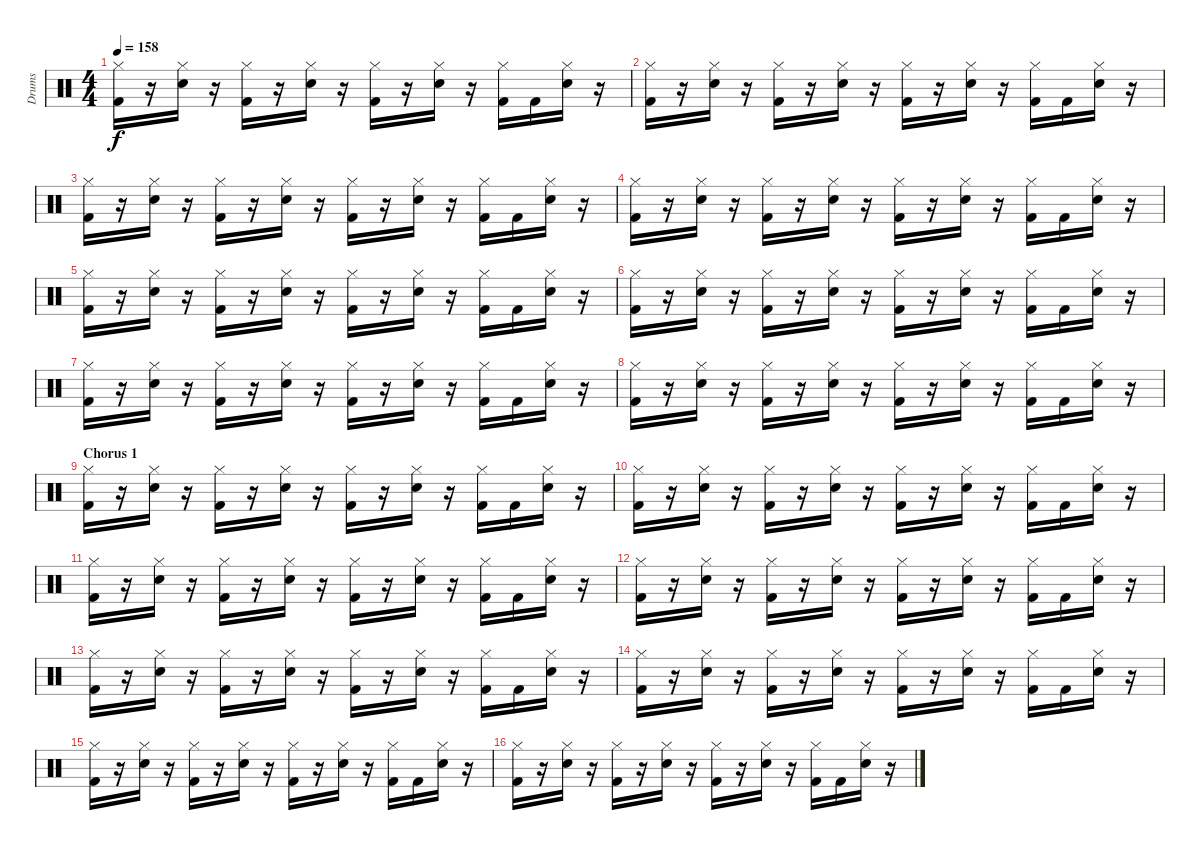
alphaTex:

\track ("Drums" "Drums") {instrument percussion}
\staff {score}
\articulation defaults
\ts (4 4)
\tempo 158
\clef neutral
\ks c
("Hi-Hat (closed)" "Kick (hit) 2").16{dy f} r.16 ("Hi-Hat (closed)" "Electric Snare (hit)").16 r.16 ("Hi-Hat (closed)" "Kick (hit) 2").16 r.16 ("Hi-Hat (closed)" "Electric Snare (hit)").16 r.16 ("Hi-Hat (closed)" "Kick (hit) 2").16 r.16 ("Hi-Hat (closed)" "Electric Snare (hit)").16 r.16 ("Hi-Hat (closed)" "Kick (hit) 2").16 "Kick (hit) 2".16 ("Hi-Hat (closed)" "Electric Snare (hit)").16 r.16 |
("Hi-Hat (closed)" "Kick (hit) 2").16 r.16 ("Hi-Hat (closed)" "Electric Snare (hit)").16 r.16 ("Hi-Hat (closed)" "Kick (hit) 2").16 r.16 ("Hi-Hat (closed)" "Electric Snare (hit)").16 r.16 ("Hi-Hat (closed)" "Kick (hit) 2").16 r.16 ("Hi-Hat (closed)" "Electric Snare (hit)").16 r.16 ("Hi-Hat (closed)" "Kick (hit) 2").16 "Kick (hit) 2".16 ("Hi-Hat (closed)" "Electric Snare (hit)").16 r.16 |
("Hi-Hat (closed)" "Kick (hit) 2").16 r.16 ("Hi-Hat (closed)" "Electric Snare (hit)").16 r.16 ("Hi-Hat (closed)" "Kick (hit) 2").16 r.16 ("Hi-Hat (closed)" "Electric Snare (hit)").16 r.16 ("Hi-Hat (closed)" "Kick (hit) 2").16 r.16 ("Hi-Hat (closed)" "Electric Snare (hit)").16 r.16 ("Hi-Hat (closed)" "Kick (hit) 2").16 "Kick (hit) 2".16 ("Hi-Hat (closed)" "Electric Snare (hit)").16 r.16 |
("Hi-Hat (closed)" "Kick (hit) 2").16 r.16 ("Hi-Hat (closed)" "Electric Snare (hit)").16 r.16 ("Hi-Hat (closed)" "Kick (hit) 2").16 r.16 ("Hi-Hat (closed)" "Electric Snare (hit)").16 r.16 ("Hi-Hat (closed)" "Kick (hit) 2").16 r.16 ("Hi-Hat (closed)" "Electric Snare (hit)").16 r.16 ("Hi-Hat (closed)" "Kick (hit) 2").16 "Kick (hit) 2".16 ("Hi-Hat (closed)" "Electric Snare (hit)").16 r.16 |
("Hi-Hat (closed)" "Kick (hit) 2").16 r.16 ("Hi-Hat (closed)" "Electric Snare (hit)").16 r.16 ("Hi-Hat (closed)" "Kick (hit) 2").16 r.16 ("Hi-Hat (closed)" "Electric Snare (hit)").16 r.16 ("Hi-Hat (closed)" "Kick (hit) 2").16 r.16 ("Hi-Hat (closed)" "Electric Snare (hit)").16 r.16 ("Hi-Hat (closed)" "Kick (hit) 2").16 "Kick (hit) 2".16 ("Hi-Hat (closed)" "Electric Snare (hit)").16 r.16 |
("Hi-Hat (closed)" "Kick (hit) 2").16 r.16 ("Hi-Hat (closed)" "Electric Snare (hit)").16 r.16 ("Hi-Hat (closed)" "Kick (hit) 2").16 r.16 ("Hi-Hat (closed)" "Electric Snare (hit)").16 r.16 ("Hi-Hat (closed)" "Kick (hit) 2").16 r.16 ("Hi-Hat (closed)" "Electric Snare (hit)").16 r.16 ("Hi-Hat (closed)" "Kick (hit) 2").16 "Kick (hit) 2".16 ("Hi-Hat (closed)" "Electric Snare (hit)").16 r.16 |
("Hi-Hat (closed)" "Kick (hit) 2").16 r.16 ("Hi-Hat (closed)" "Electric Snare (hit)").16 r.16 ("Hi-Hat (closed)" "Kick (hit) 2").16 r.16 ("Hi-Hat (closed)" "Electric Snare (hit)").16 r.16 ("Hi-Hat (closed)" "Kick (hit) 2").16 r.16 ("Hi-Hat (closed)" "Electric Snare (hit)").16 r.16 ("Hi-Hat (closed)" "Kick (hit) 2").16 "Kick (hit) 2".16 ("Hi-Hat (closed)" "Electric Snare (hit)").16 r.16 |
("Hi-Hat (closed)" "Kick (hit) 2").16 r.16 ("Hi-Hat (closed)" "Electric Snare (hit)").16 r.16 ("Hi-Hat (closed)" "Kick (hit) 2").16 r.16 ("Hi-Hat (closed)" "Electric Snare (hit)").16 r.16 ("Hi-Hat (closed)" "Kick (hit) 2").16 r.16 ("Hi-Hat (closed)" "Electric Snare (hit)").16 r.16 ("Hi-Hat (closed)" "Kick (hit) 2").16 "Kick (hit) 2".16 ("Hi-Hat (closed)" "Electric Snare (hit)").16 r.16 |
\section ("" "Chorus 1")
("Hi-Hat (closed)" "Kick (hit) 2").16 r.16 ("Hi-Hat (closed)" "Electric Snare (hit)").16 r.16 ("Hi-Hat (closed)" "Kick (hit) 2").16 r.16 ("Hi-Hat (closed)" "Electric Snare (hit)").16 r.16 ("Hi-Hat (closed)" "Kick (hit) 2").16 r.16 ("Hi-Hat (closed)" "Electric Snare (hit)").16 r.16 ("Hi-Hat (closed)" "Kick (hit) 2").16 "Kick (hit) 2".16 ("Hi-Hat (closed)" "Electric Snare (hit)").16 r.16 |
("Hi-Hat (closed)" "Kick (hit) 2").16 r.16 ("Hi-Hat (closed)" "Electric Snare (hit)").16 r.16 ("Hi-Hat (closed)" "Kick (hit) 2").16 r.16 ("Hi-Hat (closed)" "Electric Snare (hit)").16 r.16 ("Hi-Hat (closed)" "Kick (hit) 2").16 r.16 ("Hi-Hat (closed)" "Electric Snare (hit)").16 r.16 ("Hi-Hat (closed)" "Kick (hit) 2").16 "Kick (hit) 2".16 ("Hi-Hat (closed)" "Electric Snare (hit)").16 r.16 |
("Hi-Hat (closed)" "Kick (hit) 2").16 r.16 ("Hi-Hat (closed)" "Electric Snare (hit)").16 r.16 ("Hi-Hat (closed)" "Kick (hit) 2").16 r.16 ("Hi-Hat (closed)" "Electric Snare (hit)").16 r.16 ("Hi-Hat (closed)" "Kick (hit) 2").16 r.16 ("Hi-Hat (closed)" "Electric Snare (hit)").16 r.16 ("Hi-Hat (closed)" "Kick (hit) 2").16 "Kick (hit) 2".16 ("Hi-Hat (closed)" "Electric Snare (hit)").16 r.16 |
("Hi-Hat (closed)" "Kick (hit) 2").16 r.16 ("Hi-Hat (closed)" "Electric Snare (hit)").16 r.16 ("Hi-Hat (closed)" "Kick (hit) 2").16 r.16 ("Hi-Hat (closed)" "Electric Snare (hit)").16 r.16 ("Hi-Hat (closed)" "Kick (hit) 2").16 r.16 ("Hi-Hat (closed)" "Electric Snare (hit)").16 r.16 ("Hi-Hat (closed)" "Kick (hit) 2").16 "Kick (hit) 2".16 ("Hi-Hat (closed)" "Electric Snare (hit)").16 r.16 |
("Hi-Hat (closed)" "Kick (hit) 2").16 r.16 ("Hi-Hat (closed)" "Electric Snare (hit)").16 r.16 ("Hi-Hat (closed)" "Kick (hit) 2").16 r.16 ("Hi-Hat (closed)" "Electric Snare (hit)").16 r.16 ("Hi-Hat (closed)" "Kick (hit) 2").16 r.16 ("Hi-Hat (closed)" "Electric Snare (hit)").16 r.16 ("Hi-Hat (closed)" "Kick (hit) 2").16 "Kick (hit) 2".16 ("Hi-Hat (closed)" "Electric Snare (hit)").16 r.16 |
("Hi-Hat (closed)" "Kick (hit) 2").16 r.16 ("Hi-Hat (closed)" "Electric Snare (hit)").16 r.16 ("Hi-Hat (closed)" "Kick (hit) 2").16 r.16 ("Hi-Hat (closed)" "Electric Snare (hit)").16 r.16 ("Hi-Hat (closed)" "Kick (hit) 2").16 r.16 ("Hi-Hat (closed)" "Electric Snare (hit)").16 r.16 ("Hi-Hat (closed)" "Kick (hit) 2").16 "Kick (hit) 2".16 ("Hi-Hat (closed)" "Electric Snare (hit)").16 r.16 |
("Hi-Hat (closed)" "Kick (hit) 2").16 r.16 ("Hi-Hat (closed)" "Electric Snare (hit)").16 r.16 ("Hi-Hat (closed)" "Kick (hit) 2").16 r.16 ("Hi-Hat (closed)" "Electric Snare (hit)").16 r.16 ("Hi-Hat (closed)" "Kick (hit) 2").16 r.16 ("Hi-Hat (closed)" "Electric Snare (hit)").16 r.16 ("Hi-Hat (closed)" "Kick (hit) 2").16 "Kick (hit) 2".16 ("Hi-Hat (closed)" "Electric Snare (hit)").16 r.16 |
("Hi-Hat (closed)" "Kick (hit) 2").16 r.16 ("Hi-Hat (closed)" "Electric Snare (hit)").16 r.16 ("Hi-Hat (closed)" "Kick (hit) 2").16 r.16 ("Hi-Hat (closed)" "Electric Snare (hit)").16 r.16 ("Hi-Hat (closed)" "Kick (hit) 2").16 r.16 ("Hi-Hat (closed)" "Electric Snare (hit)").16 r.16 ("Hi-Hat (closed)" "Kick (hit) 2").16 "Kick (hit) 2".16 ("Hi-Hat (closed)" "Electric Snare (hit)").16 r.16
